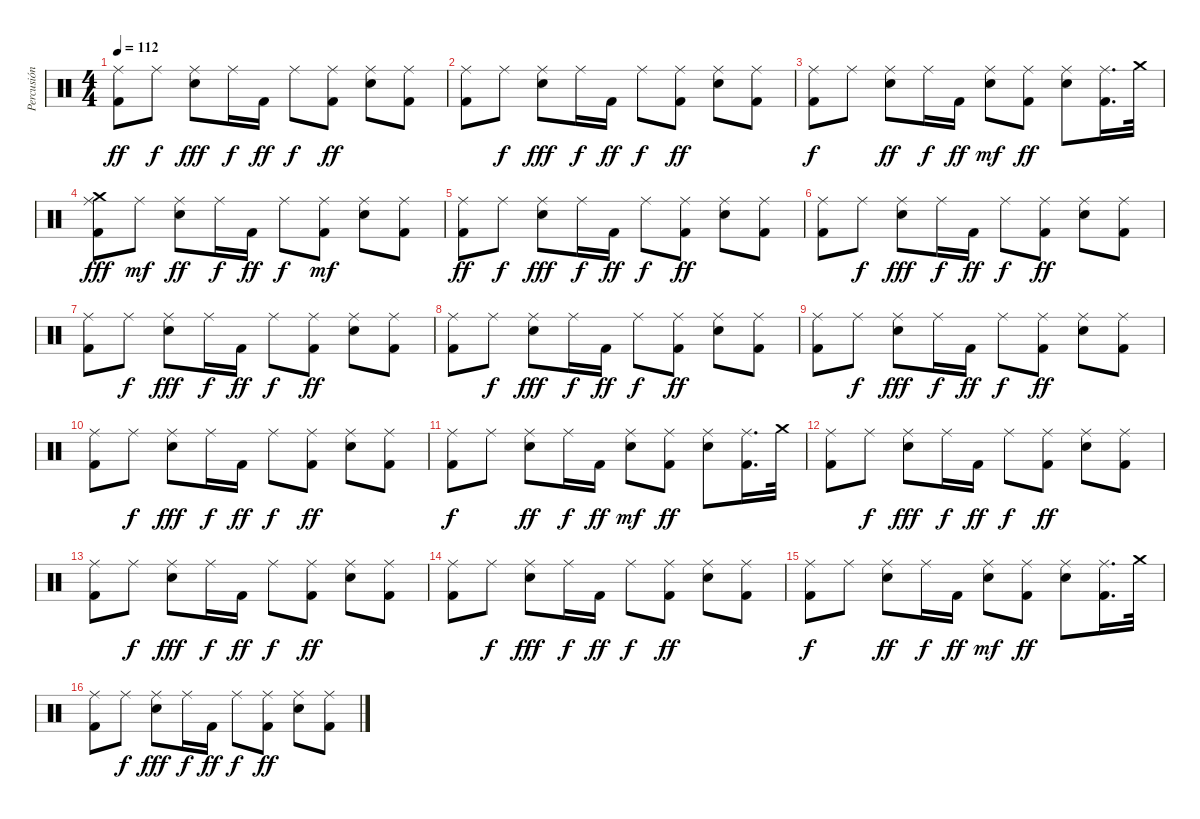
\track ("Percusión" "Percusión") {instrument percussion}
\staff {score}
\articulation defaults
\ts (4 4)
\tempo 112
\clef neutral
\ks c
("Kick (hit) 2" "Ride (middle)").8{dy ff} "Ride (middle)".8{dy f} ("Snare (hit) 2" "Ride (middle)").8{dy fff} "Ride (middle)".16{dy f} "Kick (hit) 2".16{dy ff} "Ride (middle)".8{dy f} ("Kick (hit) 2" "Ride (middle)").8{dy ff} ("Snare (hit) 2" "Ride (middle)").8 ("Kick (hit) 2" "Ride (middle)").8 |
("Kick (hit) 2" "Ride (middle)").8 "Ride (middle)".8{dy f} ("Snare (hit) 2" "Ride (middle)").8{dy fff} "Ride (middle)".16{dy f} "Kick (hit) 2".16{dy ff} "Ride (middle)".8{dy f} ("Kick (hit) 2" "Ride (middle)").8{dy ff} ("Snare (hit) 2" "Ride (middle)").8 ("Kick (hit) 2" "Ride (middle)").8 |
("Ride (middle)" "Kick (hit) 2").8{dy f} "Ride (middle)".8 ("Ride (middle)" "Snare (hit) 2").8{dy ff} "Ride (middle)".16{dy f} "Kick (hit) 2".16{dy ff} ("Snare (hit)" "Ride (middle)").8{dy mf} ("Ride (middle)" "Kick (hit) 2").8{dy ff} ("Ride (middle)" "Snare (hit) 2").8 ("Ride (middle)" "Kick (hit) 2").16{d} "Crash medium (hit)".32 |
("Crash medium (hit)" "Kick (hit) 2" "Ride (middle)").8{dy fff} "Ride (middle)".8{dy mf} ("Snare (hit) 2" "Ride (middle)").8{dy ff} "Ride (middle)".16{dy f} "Kick (hit) 2".16{dy ff} "Ride (middle)".8{dy f} ("Kick (hit) 2" "Ride (middle)").8{dy mf} ("Snare (hit) 2" "Ride (middle)").8 ("Kick (hit) 2" "Ride (middle)").8 |
("Kick (hit) 2" "Ride (middle)").8{dy ff} "Ride (middle)".8{dy f} ("Snare (hit) 2" "Ride (middle)").8{dy fff} "Ride (middle)".16{dy f} "Kick (hit) 2".16{dy ff} "Ride (middle)".8{dy f} ("Kick (hit) 2" "Ride (middle)").8{dy ff} ("Snare (hit) 2" "Ride (middle)").8 ("Kick (hit) 2" "Ride (middle)").8 |
("Kick (hit) 2" "Ride (middle)").8 "Ride (middle)".8{dy f} ("Snare (hit) 2" "Ride (middle)").8{dy fff} "Ride (middle)".16{dy f} "Kick (hit) 2".16{dy ff} "Ride (middle)".8{dy f} ("Kick (hit) 2" "Ride (middle)").8{dy ff} ("Snare (hit) 2" "Ride (middle)").8 ("Kick (hit) 2" "Ride (middle)").8 |
("Kick (hit) 2" "Ride (middle)").8 "Ride (middle)".8{dy f} ("Snare (hit) 2" "Ride (middle)").8{dy fff} "Ride (middle)".16{dy f} "Kick (hit) 2".16{dy ff} "Ride (middle)".8{dy f} ("Kick (hit) 2" "Ride (middle)").8{dy ff} ("Snare (hit) 2" "Ride (middle)").8 ("Kick (hit) 2" "Ride (middle)").8 |
("Kick (hit) 2" "Ride (middle)").8 "Ride (middle)".8{dy f} ("Snare (hit) 2" "Ride (middle)").8{dy fff} "Ride (middle)".16{dy f} "Kick (hit) 2".16{dy ff} "Ride (middle)".8{dy f} ("Kick (hit) 2" "Ride (middle)").8{dy ff} ("Snare (hit) 2" "Ride (middle)").8 ("Kick (hit) 2" "Ride (middle)").8 |
("Kick (hit) 2" "Ride (middle)").8 "Ride (middle)".8{dy f} ("Snare (hit) 2" "Ride (middle)").8{dy fff} "Ride (middle)".16{dy f} "Kick (hit) 2".16{dy ff} "Ride (middle)".8{dy f} ("Kick (hit) 2" "Ride (middle)").8{dy ff} ("Snare (hit) 2" "Ride (middle)").8 ("Kick (hit) 2" "Ride (middle)").8 |
("Kick (hit) 2" "Ride (middle)").8 "Ride (middle)".8{dy f} ("Snare (hit) 2" "Ride (middle)").8{dy fff} "Ride (middle)".16{dy f} "Kick (hit) 2".16{dy ff} "Ride (middle)".8{dy f} ("Kick (hit) 2" "Ride (middle)").8{dy ff} ("Snare (hit) 2" "Ride (middle)").8 ("Kick (hit) 2" "Ride (middle)").8 |
("Ride (middle)" "Kick (hit) 2").8{dy f} "Ride (middle)".8 ("Ride (middle)" "Snare (hit) 2").8{dy ff} "Ride (middle)".16{dy f} "Kick (hit) 2".16{dy ff} ("Snare (hit)" "Ride (middle)").8{dy mf} ("Ride (middle)" "Kick (hit) 2").8{dy ff} ("Ride (middle)" "Snare (hit) 2").8 ("Ride (middle)" "Kick (hit) 2").16{d} "Crash medium (hit)".32 |
("Kick (hit) 2" "Ride (middle)").8 "Ride (middle)".8{dy f} ("Snare (hit) 2" "Ride (middle)").8{dy fff} "Ride (middle)".16{dy f} "Kick (hit) 2".16{dy ff} "Ride (middle)".8{dy f} ("Kick (hit) 2" "Ride (middle)").8{dy ff} ("Snare (hit) 2" "Ride (middle)").8 ("Kick (hit) 2" "Ride (middle)").8 |
("Kick (hit) 2" "Ride (middle)").8 "Ride (middle)".8{dy f} ("Snare (hit) 2" "Ride (middle)").8{dy fff} "Ride (middle)".16{dy f} "Kick (hit) 2".16{dy ff} "Ride (middle)".8{dy f} ("Kick (hit) 2" "Ride (middle)").8{dy ff} ("Snare (hit) 2" "Ride (middle)").8 ("Kick (hit) 2" "Ride (middle)").8 |
("Kick (hit) 2" "Ride (middle)").8 "Ride (middle)".8{dy f} ("Snare (hit) 2" "Ride (middle)").8{dy fff} "Ride (middle)".16{dy f} "Kick (hit) 2".16{dy ff} "Ride (middle)".8{dy f} ("Kick (hit) 2" "Ride (middle)").8{dy ff} ("Snare (hit) 2" "Ride (middle)").8 ("Kick (hit) 2" "Ride (middle)").8 |
("Ride (middle)" "Kick (hit) 2").8{dy f} "Ride (middle)".8 ("Ride (middle)" "Snare (hit) 2").8{dy ff} "Ride (middle)".16{dy f} "Kick (hit) 2".16{dy ff} ("Snare (hit)" "Ride (middle)").8{dy mf} ("Ride (middle)" "Kick (hit) 2").8{dy ff} ("Ride (middle)" "Snare (hit) 2").8 ("Ride (middle)" "Kick (hit) 2").16{d} "Crash medium (hit)".32 |
("Kick (hit) 2" "Ride (middle)").8 "Ride (middle)".8{dy f} ("Snare (hit) 2" "Ride (middle)").8{dy fff} "Ride (middle)".16{dy f} "Kick (hit) 2".16{dy ff} "Ride (middle)".8{dy f} ("Kick (hit) 2" "Ride (middle)").8{dy ff} ("Snare (hit) 2" "Ride (middle)").8 ("Kick (hit) 2" "Ride (middle)").8
